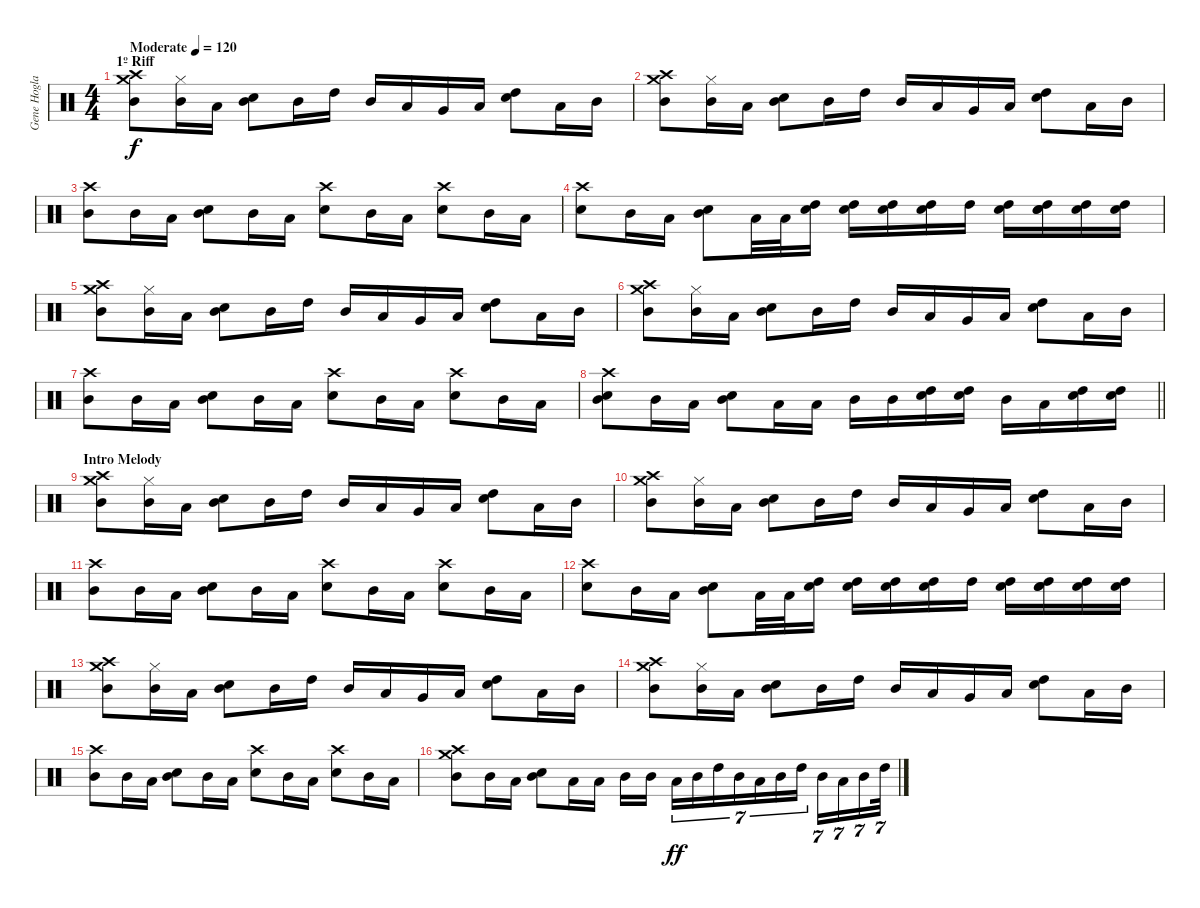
\track ("Gene Hoglan" "Gene Hogla") {instrument percussion}
\staff {score}
\articulation defaults
\ts (4 4)
\section ("" "1º Riff")
\tempo (120 "Moderate")
\clef neutral
\ks c
("Crash high (hit)" "Mid Tom (hit)" "Crash medium (hit)").8{dy f} ("Mid Tom (hit)" "Hi-Hat (closed)").16 "Low Tom (hit)".16 ("Electric Snare (hit)" "Mid Tom (hit)").8 "Mid Tom (hit)".16 "High Tom (hit)".16 "Mid Tom (hit)".16 "Low Tom (hit)".16 "Very Low Tom (hit)".16 "Low Tom (hit)".16 ("Electric Snare (hit)" "High Tom (hit)").8 "Low Tom (hit)".16 "Mid Tom (hit)".16 |
("Crash high (hit)" "Mid Tom (hit)" "Crash medium (hit)").8 ("Mid Tom (hit)" "Hi-Hat (closed)").16 "Low Tom (hit)".16 ("Electric Snare (hit)" "Mid Tom (hit)").8 "Mid Tom (hit)".16 "High Tom (hit)".16 "Mid Tom (hit)".16 "Low Tom (hit)".16 "Very Low Tom (hit)".16 "Low Tom (hit)".16 ("Electric Snare (hit)" "High Tom (hit)").8 "Low Tom (hit)".16 "Mid Tom (hit)".16 |
("Mid Tom (hit)" "Crash high (hit)").8 "Mid Tom (hit)".16 "Low Tom (hit)".16 ("Electric Snare (hit)" "Mid Tom (hit)").8 "Mid Tom (hit)".16 "Low Tom (hit)".16 ("Electric Snare (hit)" "Crash high (hit)").8 "Mid Tom (hit)".16 "Low Tom (hit)".16 ("Electric Snare (hit)" "Crash high (hit)").8 "Mid Tom (hit)".16 "Low Tom (hit)".16 |
("Electric Snare (hit)" "Crash high (hit)").8 "Mid Tom (hit)".16 "Low Tom (hit)".16 ("Electric Snare (hit)" "Mid Tom (hit)").8 "Low Tom (hit)".32 "Low Tom (hit)".32 ("High Tom (hit)" "Electric Snare (hit)").16 ("High Tom (hit)" "Electric Snare (hit)").16 ("High Tom (hit)" "Electric Snare (hit)").16 ("High Tom (hit)" "Electric Snare (hit)").16 "High Tom (hit)".16 ("High Tom (hit)" "Electric Snare (hit)").16 ("High Tom (hit)" "Electric Snare (hit)" "Electric Snare (hit)").16 ("Electric Snare (hit)" "High Tom (hit)").16 ("High Tom (hit)" "Electric Snare (hit)").16 |
("Crash high (hit)" "Mid Tom (hit)" "Crash medium (hit)").8 ("Mid Tom (hit)" "Hi-Hat (closed)").16 "Low Tom (hit)".16 ("Electric Snare (hit)" "Mid Tom (hit)").8 "Mid Tom (hit)".16 "High Tom (hit)".16 "Mid Tom (hit)".16 "Low Tom (hit)".16 "Very Low Tom (hit)".16 "Low Tom (hit)".16 ("Electric Snare (hit)" "High Tom (hit)").8 "Low Tom (hit)".16 "Mid Tom (hit)".16 |
("Crash high (hit)" "Mid Tom (hit)" "Crash medium (hit)").8 ("Mid Tom (hit)" "Hi-Hat (closed)").16 "Low Tom (hit)".16 ("Electric Snare (hit)" "Mid Tom (hit)").8 "Mid Tom (hit)".16 "High Tom (hit)".16 "Mid Tom (hit)".16 "Low Tom (hit)".16 "Very Low Tom (hit)".16 "Low Tom (hit)".16 ("Electric Snare (hit)" "High Tom (hit)").8 "Low Tom (hit)".16 "Mid Tom (hit)".16 |
("Mid Tom (hit)" "Crash high (hit)").8 "Mid Tom (hit)".16 "Low Tom (hit)".16 ("Electric Snare (hit)" "Mid Tom (hit)").8 "Mid Tom (hit)".16 "Low Tom (hit)".16 ("Electric Snare (hit)" "Crash high (hit)").8 "Mid Tom (hit)".16 "Low Tom (hit)".16 ("Electric Snare (hit)" "Crash high (hit)").8 "Mid Tom (hit)".16 "Low Tom (hit)".16 |
\barLineRight lightlight
("Electric Snare (hit)" "Mid Tom (hit)" "Crash high (hit)").8 "Mid Tom (hit)".16 "Low Tom (hit)".16 ("Electric Snare (hit)" "Mid Tom (hit)").8 "Low Tom (hit)".16 "Low Tom (hit)".16 "Mid Tom (hit)".16 "Mid Tom (hit)".16 ("High Tom (hit)" "Electric Snare (hit)").16 ("Electric Snare (hit)" "High Tom (hit)").16 "Mid Tom (hit)".16 "Low Tom (hit)".16 ("High Tom (hit)" "Electric Snare (hit)").16 ("High Tom (hit)" "Electric Snare (hit)").16 |
\section ("" "Intro Melody")
("Crash high (hit)" "Mid Tom (hit)" "Crash medium (hit)").8 ("Mid Tom (hit)" "Hi-Hat (closed)").16 "Low Tom (hit)".16 ("Electric Snare (hit)" "Mid Tom (hit)").8 "Mid Tom (hit)".16 "High Tom (hit)".16 "Mid Tom (hit)".16 "Low Tom (hit)".16 "Very Low Tom (hit)".16 "Low Tom (hit)".16 ("Electric Snare (hit)" "High Tom (hit)").8 "Low Tom (hit)".16 "Mid Tom (hit)".16 |
("Crash high (hit)" "Mid Tom (hit)" "Crash medium (hit)").8 ("Mid Tom (hit)" "Hi-Hat (closed)").16 "Low Tom (hit)".16 ("Electric Snare (hit)" "Mid Tom (hit)").8 "Mid Tom (hit)".16 "High Tom (hit)".16 "Mid Tom (hit)".16 "Low Tom (hit)".16 "Very Low Tom (hit)".16 "Low Tom (hit)".16 ("Electric Snare (hit)" "High Tom (hit)").8 "Low Tom (hit)".16 "Mid Tom (hit)".16 |
("Mid Tom (hit)" "Crash high (hit)").8 "Mid Tom (hit)".16 "Low Tom (hit)".16 ("Electric Snare (hit)" "Mid Tom (hit)").8 "Mid Tom (hit)".16 "Low Tom (hit)".16 ("Electric Snare (hit)" "Crash high (hit)").8 "Mid Tom (hit)".16 "Low Tom (hit)".16 ("Electric Snare (hit)" "Crash high (hit)").8 "Mid Tom (hit)".16 "Low Tom (hit)".16 |
("Electric Snare (hit)" "Crash high (hit)").8 "Mid Tom (hit)".16 "Low Tom (hit)".16 ("Electric Snare (hit)" "Mid Tom (hit)").8 "Low Tom (hit)".32 "Low Tom (hit)".32 ("High Tom (hit)" "Electric Snare (hit)").16 ("High Tom (hit)" "Electric Snare (hit)").16 ("High Tom (hit)" "Electric Snare (hit)").16 ("High Tom (hit)" "Electric Snare (hit)").16 "High Tom (hit)".16 ("High Tom (hit)" "Electric Snare (hit)").16 ("High Tom (hit)" "Electric Snare (hit)" "Electric Snare (hit)").16 ("Electric Snare (hit)" "High Tom (hit)").16 ("High Tom (hit)" "Electric Snare (hit)").16 |
("Crash high (hit)" "Mid Tom (hit)" "Crash medium (hit)").8 ("Mid Tom (hit)" "Hi-Hat (closed)").16 "Low Tom (hit)".16 ("Electric Snare (hit)" "Mid Tom (hit)").8 "Mid Tom (hit)".16 "High Tom (hit)".16 "Mid Tom (hit)".16 "Low Tom (hit)".16 "Very Low Tom (hit)".16 "Low Tom (hit)".16 ("Electric Snare (hit)" "High Tom (hit)").8 "Low Tom (hit)".16 "Mid Tom (hit)".16 |
("Crash high (hit)" "Mid Tom (hit)" "Crash medium (hit)").8 ("Mid Tom (hit)" "Hi-Hat (closed)").16 "Low Tom (hit)".16 ("Electric Snare (hit)" "Mid Tom (hit)").8 "Mid Tom (hit)".16 "High Tom (hit)".16 "Mid Tom (hit)".16 "Low Tom (hit)".16 "Very Low Tom (hit)".16 "Low Tom (hit)".16 ("Electric Snare (hit)" "High Tom (hit)").8 "Low Tom (hit)".16 "Mid Tom (hit)".16 |
("Mid Tom (hit)" "Crash high (hit)").8 "Mid Tom (hit)".16 "Low Tom (hit)".16 ("Electric Snare (hit)" "Mid Tom (hit)").8 "Mid Tom (hit)".16 "Low Tom (hit)".16 ("Electric Snare (hit)" "Crash high (hit)").8 "Mid Tom (hit)".16 "Low Tom (hit)".16 ("Electric Snare (hit)" "Crash high (hit)").8 "Mid Tom (hit)".16 "Low Tom (hit)".16 |
("Mid Tom (hit)" "Crash high (hit)" "Crash medium (hit)").8 "Mid Tom (hit)".16 "Low Tom (hit)".16 ("Electric Snare (hit)" "Mid Tom (hit)").8 "Low Tom (hit)".16 "Low Tom (hit)".16 "Mid Tom (hit)".16 "Mid Tom (hit)".16{beam splitsecondary} "Low Tom (hit)".16{tu (7 4) dy ff} "Mid Tom (hit)".16{tu (7 4)} "High Tom (hit)".16{tu (7 4)} "Mid Tom (hit)".16{tu (7 4)} "Low Tom (hit)".16{tu (7 4)} "Mid Tom (hit)".16{tu (7 4)} "High Tom (hit)".16{tu (7 4) beam splitsecondary} "Mid Tom (hit)".16{tu (7 4)} "Low Tom (hit)".16{tu (7 4)} "Mid Tom (hit)".16{tu (7 4)} "High Tom (hit)".32{tu (7 4)}
